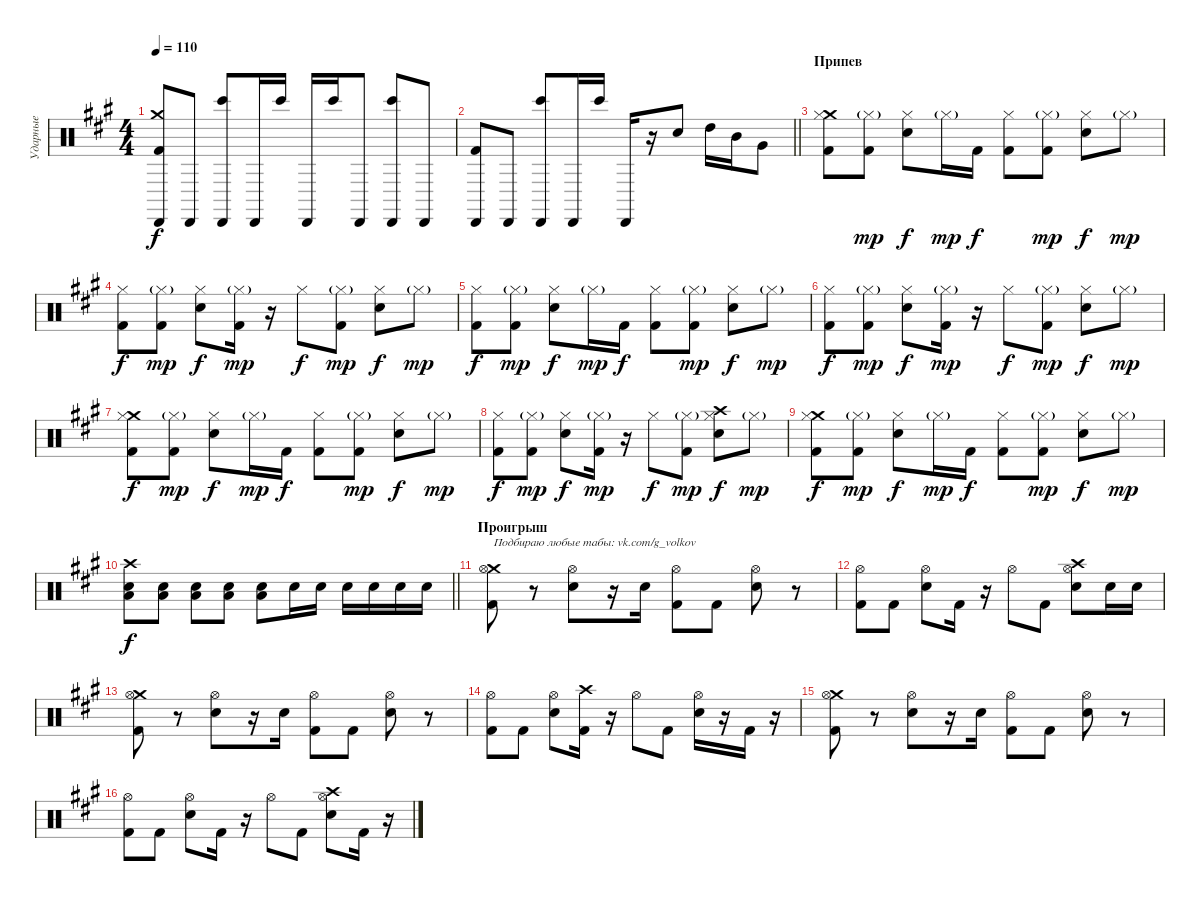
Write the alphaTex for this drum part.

\track ("Ударные" "Ударные") {instrument percussion}
\staff {score}
\articulation defaults
\ts (4 4)
\section ("" "")
\tempo 110
\clef neutral
\ks f#minor
("Crash medium (hit)" "Kick (hit) 2" "Cabasa (hit)").8{dy f} "Cabasa (hit)".8 ("Bongo High (hit)" "Cabasa (hit)").8 "Cabasa (hit)".16 "Bongo High (hit)".16 "Cabasa (hit)".16 "Bongo High (hit)".16 "Cabasa (hit)".8 ("Bongo High (hit)" "Cabasa (hit)").8 "Cabasa (hit)".8 |
\barLineRight lightlight
("Kick (hit) 2" "Cabasa (hit)").8 "Cabasa (hit)".8 ("Bongo High (hit)" "Cabasa (hit)").8 "Cabasa (hit)".16 "Bongo High (hit)".16 "Cabasa (hit)".16 r.16 "Electric Snare (hit)".8 "High Tom (hit)".16 "Mid Tom (hit)".16 "Very Low Tom (hit)".8 |
\section ("" "Припев")
("Crash medium (hit)" "Kick (hit) 2" "Hi-Hat (closed)").8 ("Kick (hit) 2" "Hi-Hat (closed)"{g}).8{dy mp} ("Electric Snare (hit)" "Hi-Hat (closed)").8{dy f} "Hi-Hat (closed)"{g}.16{dy mp} "Kick (hit) 2".16{dy f} ("Kick (hit) 2" "Hi-Hat (closed)").8 ("Kick (hit) 2" "Hi-Hat (closed)"{g}).8{dy mp} ("Electric Snare (hit)" "Hi-Hat (closed)").8{dy f} "Hi-Hat (closed)"{g}.8{dy mp} |
("Kick (hit) 2" "Hi-Hat (closed)").8{dy f} ("Kick (hit) 2" "Hi-Hat (closed)"{g}).8{dy mp} ("Electric Snare (hit)" "Hi-Hat (closed)").8{dy f} ("Kick (hit) 2" "Hi-Hat (closed)"{g}).16{dy mp} r.16 "Hi-Hat (closed)".8{dy f} ("Kick (hit) 2" "Hi-Hat (closed)"{g}).8{dy mp} ("Electric Snare (hit)" "Hi-Hat (closed)").8{dy f} "Hi-Hat (closed)"{g}.8{dy mp} |
("Kick (hit) 2" "Hi-Hat (closed)").8{dy f} ("Kick (hit) 2" "Hi-Hat (closed)"{g}).8{dy mp} ("Electric Snare (hit)" "Hi-Hat (closed)").8{dy f} "Hi-Hat (closed)"{g}.16{dy mp} "Kick (hit) 2".16{dy f} ("Kick (hit) 2" "Hi-Hat (closed)").8 ("Kick (hit) 2" "Hi-Hat (closed)"{g}).8{dy mp} ("Electric Snare (hit)" "Hi-Hat (closed)").8{dy f} "Hi-Hat (closed)"{g}.8{dy mp} |
("Kick (hit) 2" "Hi-Hat (closed)").8{dy f} ("Kick (hit) 2" "Hi-Hat (closed)"{g}).8{dy mp} ("Electric Snare (hit)" "Hi-Hat (closed)").8{dy f} ("Kick (hit) 2" "Hi-Hat (closed)"{g}).16{dy mp} r.16 "Hi-Hat (closed)".8{dy f} ("Kick (hit) 2" "Hi-Hat (closed)"{g}).8{dy mp} ("Electric Snare (hit)" "Hi-Hat (closed)").8{dy f} "Hi-Hat (closed)"{g}.8{dy mp} |
("Crash medium (hit)" "Kick (hit) 2" "Hi-Hat (closed)").8{dy f} ("Kick (hit) 2" "Hi-Hat (closed)"{g}).8{dy mp} ("Electric Snare (hit)" "Hi-Hat (closed)").8{dy f} "Hi-Hat (closed)"{g}.16{dy mp} "Kick (hit) 2".16{dy f} ("Kick (hit) 2" "Hi-Hat (closed)").8 ("Kick (hit) 2" "Hi-Hat (closed)"{g}).8{dy mp} ("Electric Snare (hit)" "Hi-Hat (closed)").8{dy f} "Hi-Hat (closed)"{g}.8{dy mp} |
("Kick (hit) 2" "Hi-Hat (closed)").8{dy f} ("Kick (hit) 2" "Hi-Hat (closed)"{g}).8{dy mp} ("Electric Snare (hit)" "Hi-Hat (closed)").8{dy f} ("Kick (hit) 2" "Hi-Hat (closed)"{g}).16{dy mp} r.16 "Hi-Hat (closed)".8{dy f} ("Kick (hit) 2" "Hi-Hat (closed)"{g}).8{dy mp} ("Crash high (hit)" "Electric Snare (hit)" "Hi-Hat (closed)").8{dy f} "Hi-Hat (closed)"{g}.8{dy mp} |
("Crash medium (hit)" "Kick (hit) 2" "Hi-Hat (closed)").8{dy f} ("Kick (hit) 2" "Hi-Hat (closed)"{g}).8{dy mp} ("Electric Snare (hit)" "Hi-Hat (closed)").8{dy f} "Hi-Hat (closed)"{g}.16{dy mp} "Kick (hit) 2".16{dy f} ("Kick (hit) 2" "Hi-Hat (closed)").8 ("Kick (hit) 2" "Hi-Hat (closed)"{g}).8{dy mp} ("Electric Snare (hit)" "Hi-Hat (closed)").8{dy f} "Hi-Hat (closed)"{g}.8{dy mp} |
\barLineRight lightlight
("Low Tom (hit)" "Electric Snare (hit)" "Crash high (hit)").8{dy f} ("Low Tom (hit)" "Electric Snare (hit)").8 ("Low Tom (hit)" "Electric Snare (hit)").8 ("Low Tom (hit)" "Electric Snare (hit)").8 ("Low Tom (hit)" "Electric Snare (hit)").8 "Electric Snare (hit)".16 "Electric Snare (hit)".16 "Electric Snare (hit)".16 "Electric Snare (hit)".16 "Electric Snare (hit)".16 "Electric Snare (hit)".16 |
\section ("" "Проигрыш")
("Crash medium (hit)" "Kick (hit) 2" "Hi-Hat (open)").8{txt "Подбираю любые табы: vk.com/g_volkov"} r.8 ("Electric Snare (hit)" "Hi-Hat (open)").8 r.16 "Electric Snare (hit)".16 ("Kick (hit) 2" "Hi-Hat (open)").8 "Kick (hit) 2".8 ("Electric Snare (hit)" "Hi-Hat (open)").8 r.8 |
("Kick (hit) 2" "Hi-Hat (open)").8 "Kick (hit) 2".8 ("Electric Snare (hit)" "Hi-Hat (open)").8 "Kick (hit) 2".16 r.16 "Hi-Hat (open)".8 "Kick (hit) 2".8 ("Crash high (hit)" "Electric Snare (hit)" "Hi-Hat (open)").8 "Electric Snare (hit)".16 "Electric Snare (hit)".16 |
("Crash medium (hit)" "Kick (hit) 2" "Hi-Hat (open)").8 r.8 ("Electric Snare (hit)" "Hi-Hat (open)").8 r.16 "Electric Snare (hit)".16 ("Kick (hit) 2" "Hi-Hat (open)").8 "Kick (hit) 2".8 ("Electric Snare (hit)" "Hi-Hat (open)").8 r.8 |
("Kick (hit) 2" "Hi-Hat (open)").8 "Kick (hit) 2".8 ("Electric Snare (hit)" "Hi-Hat (open)").8 ("Crash high (hit)" "Kick (hit) 2").16 r.16 "Hi-Hat (open)".8 "Kick (hit) 2".8 ("Electric Snare (hit)" "Hi-Hat (open)").16 r.16 "Kick (hit) 2".16 r.16 |
("Crash medium (hit)" "Kick (hit) 2" "Hi-Hat (open)").8 r.8 ("Electric Snare (hit)" "Hi-Hat (open)").8 r.16 "Electric Snare (hit)".16 ("Kick (hit) 2" "Hi-Hat (open)").8 "Kick (hit) 2".8 ("Electric Snare (hit)" "Hi-Hat (open)").8 r.8 |
("Kick (hit) 2" "Hi-Hat (open)").8 "Kick (hit) 2".8 ("Electric Snare (hit)" "Hi-Hat (open)").8 "Kick (hit) 2".16 r.16 "Hi-Hat (open)".8 "Kick (hit) 2".8 ("Crash high (hit)" "Electric Snare (hit)" "Hi-Hat (open)").8 "Kick (hit) 2".16 r.16
